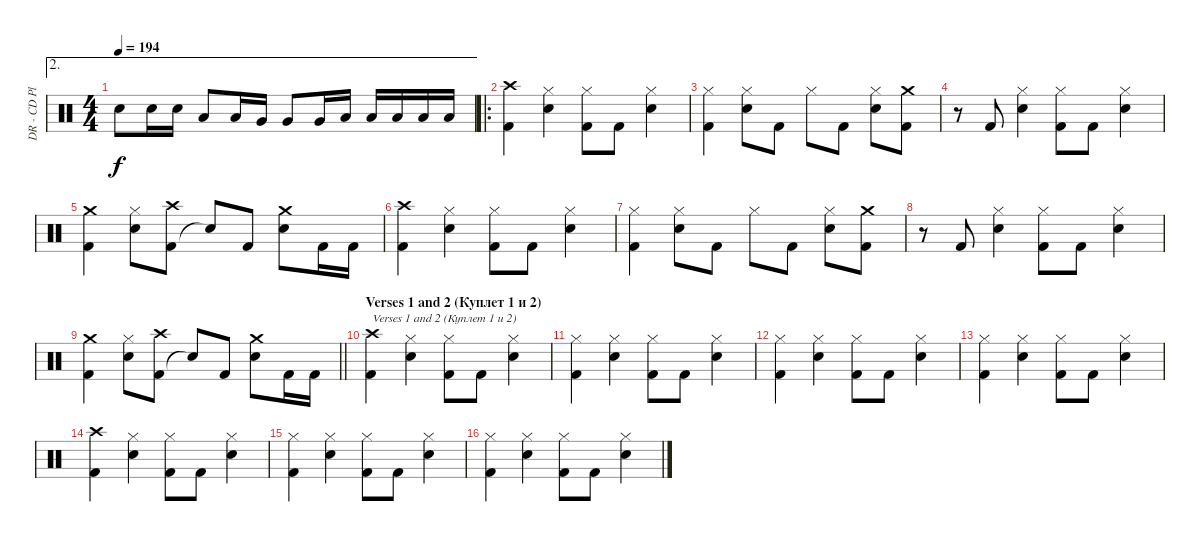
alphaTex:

\track ("DR - CD Player" "DR - CD Pl") {instrument percussion}
\staff {score}
\articulation defaults
\ae 2
\ts (4 4)
\tempo 194
\clef neutral
\ks c "Snare (hit) 2".8{dy f} "Snare (hit) 2".16 "Snare (hit) 2".16 "Low Tom (hit)".8 "Low Tom (hit)".16 "Very Low Tom (hit)".16 "Very Low Tom (hit)".8 "Very Low Tom (hit)".16 "Low Floor Tom (hit)".16 "Low Floor Tom (hit)".16 "Low Floor Tom (hit)".16 "Low Floor Tom (hit)".16 "Low Floor Tom (hit)".16
|
\ro
("Kick (hit) 2" "Crash high (hit)").4 ("Snare (hit) 2" "Hi-Hat (closed)").4 ("Kick (hit) 2" "Hi-Hat (closed)").8 "Kick (hit) 2".8 ("Snare (hit) 2" "Hi-Hat (closed)").4 |
("Kick (hit) 2" "Hi-Hat (closed)").4 ("Snare (hit) 2" "Hi-Hat (closed)").8 "Kick (hit) 2".8 "Hi-Hat (closed)".8 "Kick (hit) 2".8 ("Snare (hit) 2" "Hi-Hat (closed)").8 ("Kick (hit) 2" "Crash medium (hit)").8 |
r.8 "Kick (hit) 2".8 ("Snare (hit) 2" "Hi-Hat (closed)").4 ("Kick (hit) 2" "Hi-Hat (closed)").8 "Kick (hit) 2".8 ("Snare (hit) 2" "Hi-Hat (closed)").4 |
("Kick (hit) 2" "Crash medium (hit)").4 ("Snare (hit) 2" "Hi-Hat (closed)").8 ("Kick (hit) 2" "Crash high (hit)").8 "Snare (hit)"{t}.8 "Kick (hit) 2".8 ("Snare (hit) 2" "Crash medium (hit)").8 "Kick (hit) 2".16 "Kick (hit) 2".16 |
("Kick (hit) 2" "Crash high (hit)").4 ("Snare (hit) 2" "Hi-Hat (closed)").4 ("Kick (hit) 2" "Hi-Hat (closed)").8 "Kick (hit) 2".8 ("Snare (hit) 2" "Hi-Hat (closed)").4 |
("Kick (hit) 2" "Hi-Hat (closed)").4 ("Snare (hit) 2" "Hi-Hat (closed)").8 "Kick (hit) 2".8 "Hi-Hat (closed)".8 "Kick (hit) 2".8 ("Snare (hit) 2" "Hi-Hat (closed)").8 ("Kick (hit) 2" "Crash medium (hit)").8 |
r.8 "Kick (hit) 2".8 ("Snare (hit) 2" "Hi-Hat (closed)").4 ("Kick (hit) 2" "Hi-Hat (closed)").8 "Kick (hit) 2".8 ("Snare (hit) 2" "Hi-Hat (closed)").4 |
\barLineRight lightlight
("Kick (hit) 2" "Crash medium (hit)").4 ("Snare (hit) 2" "Hi-Hat (closed)").8 ("Kick (hit) 2" "Crash high (hit)").8 "Snare (hit)"{t}.8 "Kick (hit) 2".8 ("Snare (hit) 2" "Crash medium (hit)").8 "Kick (hit) 2".16 "Kick (hit) 2".16 |
\section ("" "Verses 1 and 2 (Куплет 1 и 2)")
("Kick (hit) 2" "Crash high (hit)").4{txt "Verses 1 and 2 (Куплет 1 и 2)"} ("Snare (hit) 2" "Hi-Hat (closed)").4 ("Kick (hit) 2" "Hi-Hat (closed)").8 "Kick (hit) 2".8 ("Snare (hit) 2" "Hi-Hat (closed)").4 |
("Kick (hit) 2" "Hi-Hat (closed)").4 ("Snare (hit) 2" "Hi-Hat (closed)").4 ("Kick (hit) 2" "Hi-Hat (closed)").8 "Kick (hit) 2".8 ("Snare (hit) 2" "Hi-Hat (closed)").4 |
("Kick (hit) 2" "Hi-Hat (closed)").4 ("Snare (hit) 2" "Hi-Hat (closed)").4 ("Kick (hit) 2" "Hi-Hat (closed)").8 "Kick (hit) 2".8 ("Snare (hit) 2" "Hi-Hat (closed)").4 |
("Kick (hit) 2" "Hi-Hat (closed)").4 ("Snare (hit) 2" "Hi-Hat (closed)").4 ("Kick (hit) 2" "Hi-Hat (closed)").8 "Kick (hit) 2".8 ("Snare (hit) 2" "Hi-Hat (closed)").4 |
("Kick (hit) 2" "Crash high (hit)").4 ("Snare (hit) 2" "Hi-Hat (closed)").4 ("Kick (hit) 2" "Hi-Hat (closed)").8 "Kick (hit) 2".8 ("Snare (hit) 2" "Hi-Hat (closed)").4 |
("Kick (hit) 2" "Hi-Hat (closed)").4 ("Snare (hit) 2" "Hi-Hat (closed)").4 ("Kick (hit) 2" "Hi-Hat (closed)").8 "Kick (hit) 2".8 ("Snare (hit) 2" "Hi-Hat (closed)").4 |
("Kick (hit) 2" "Hi-Hat (closed)").4 ("Snare (hit) 2" "Hi-Hat (closed)").4 ("Kick (hit) 2" "Hi-Hat (closed)").8 "Kick (hit) 2".8 ("Snare (hit) 2" "Hi-Hat (closed)").4
